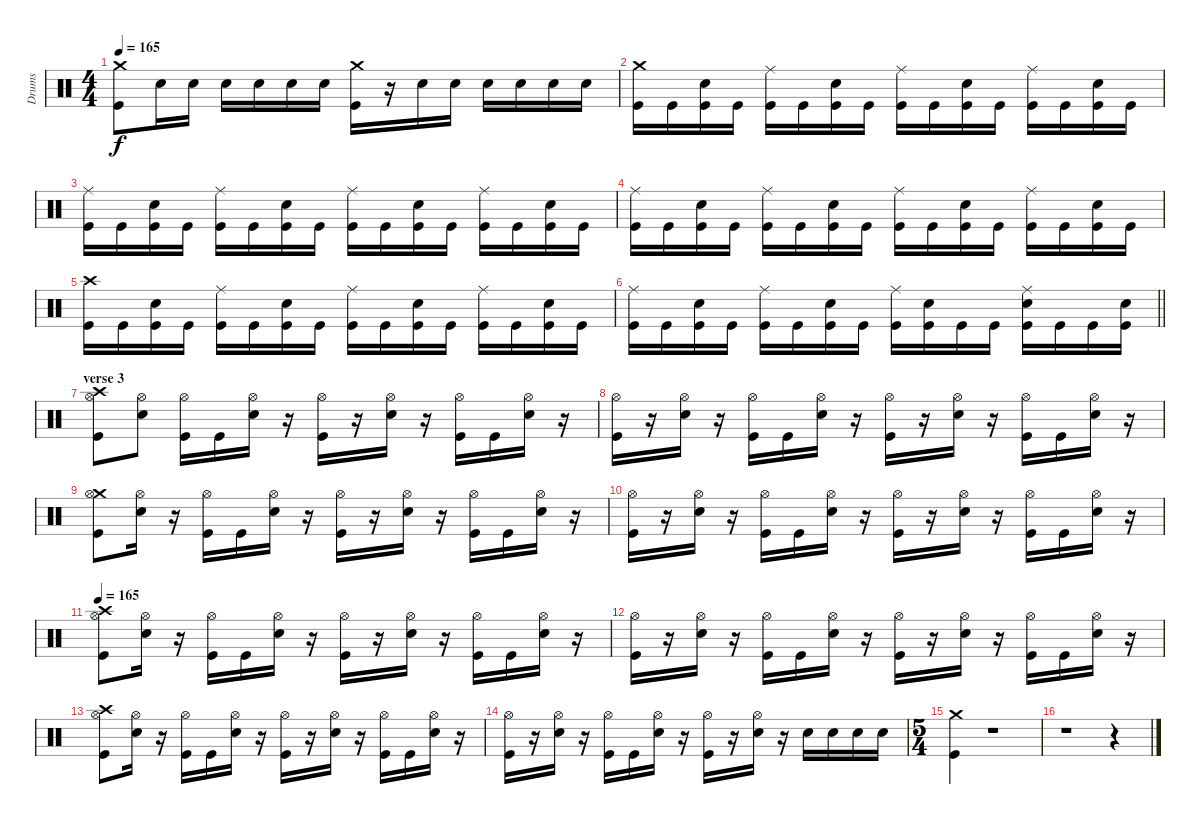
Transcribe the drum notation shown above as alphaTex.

\track ("Drums" "Drums") {instrument percussion}
\staff {score}
\articulation defaults
\ts (4 4)
\tempo 165
\clef neutral
\ks c
("Kick (hit)" "Crash medium (hit)").8{dy f} "Electric Snare (hit)".16 "Electric Snare (hit)".16 "Electric Snare (hit)".16 "Electric Snare (hit)".16 "Electric Snare (hit)".16 "Electric Snare (hit)".16 ("Crash medium (hit)" "Kick (hit)").16 r.16 "Electric Snare (hit)".16 "Electric Snare (hit)".16 "Electric Snare (hit)".16 "Electric Snare (hit)".16 "Electric Snare (hit)".16 "Electric Snare (hit)".16 |
("Crash medium (hit)" "Kick (hit)").16{volume 14 balance 8} "Kick (hit)".16 ("Electric Snare (hit)" "Kick (hit)").16 "Kick (hit)".16 ("Ride (middle)" "Kick (hit)").16 "Kick (hit)".16 ("Electric Snare (hit)" "Kick (hit)").16 "Kick (hit)".16 ("Ride (middle)" "Kick (hit)").16 "Kick (hit)".16 ("Electric Snare (hit)" "Kick (hit)").16 "Kick (hit)".16 ("Ride (middle)" "Kick (hit)").16 "Kick (hit)".16 ("Electric Snare (hit)" "Kick (hit)").16 "Kick (hit)".16 |
("Ride (middle)" "Kick (hit)").16 "Kick (hit)".16 ("Electric Snare (hit)" "Kick (hit)").16 "Kick (hit)".16 ("Ride (middle)" "Kick (hit)").16 "Kick (hit)".16 ("Electric Snare (hit)" "Kick (hit)").16 "Kick (hit)".16 ("Ride (middle)" "Kick (hit)").16 "Kick (hit)".16 ("Electric Snare (hit)" "Kick (hit)").16 "Kick (hit)".16 ("Ride (middle)" "Kick (hit)").16 "Kick (hit)".16 ("Electric Snare (hit)" "Kick (hit)").16 "Kick (hit)".16 |
("Ride (middle)" "Kick (hit)").16 "Kick (hit)".16 ("Electric Snare (hit)" "Kick (hit)").16 "Kick (hit)".16 ("Ride (middle)" "Kick (hit)").16 "Kick (hit)".16 ("Electric Snare (hit)" "Kick (hit)").16 "Kick (hit)".16 ("Ride (middle)" "Kick (hit)").16 "Kick (hit)".16 ("Electric Snare (hit)" "Kick (hit)").16 "Kick (hit)".16 ("Ride (middle)" "Kick (hit)").16 "Kick (hit)".16 ("Electric Snare (hit)" "Kick (hit)").16 "Kick (hit)".16 |
("Crash high (hit)" "Kick (hit)").16 "Kick (hit)".16 ("Electric Snare (hit)" "Kick (hit)").16 "Kick (hit)".16 ("Ride (middle)" "Kick (hit)").16 "Kick (hit)".16 ("Electric Snare (hit)" "Kick (hit)").16 "Kick (hit)".16 ("Ride (middle)" "Kick (hit)").16 "Kick (hit)".16 ("Electric Snare (hit)" "Kick (hit)").16 "Kick (hit)".16 ("Ride (middle)" "Kick (hit)").16 "Kick (hit)".16 ("Electric Snare (hit)" "Kick (hit)").16 "Kick (hit)".16 |
\barLineRight lightlight
("Ride (middle)" "Kick (hit)").16 "Kick (hit)".16 ("Electric Snare (hit)" "Kick (hit)").16 "Kick (hit)".16 ("Ride (middle)" "Kick (hit)").16 "Kick (hit)".16 ("Electric Snare (hit)" "Kick (hit)").16 "Kick (hit)".16 ("Ride (middle)" "Kick (hit)").16 ("Kick (hit)" "Electric Snare (hit)").16 "Kick (hit)".16 "Kick (hit)".16 ("Electric Snare (hit)" "Kick (hit)" "Ride (middle)").16 "Kick (hit)".16 "Kick (hit)".16 ("Electric Snare (hit)" "Kick (hit)").16 |
\section ("" "verse 3")
("Crash high (hit)" "Hi-Hat (open)" "Kick (hit)").8{volume 14 balance 8} ("Electric Snare (hit)" "Hi-Hat (open)").8 ("Kick (hit)" "Hi-Hat (open)").16 "Kick (hit)".16 ("Electric Snare (hit)" "Hi-Hat (open)").16 r.16 ("Kick (hit)" "Hi-Hat (open)").16 r.16 ("Electric Snare (hit)" "Hi-Hat (open)").16 r.16 ("Kick (hit)" "Hi-Hat (open)").16 "Kick (hit)".16 ("Electric Snare (hit)" "Hi-Hat (open)").16 r.16 |
("Hi-Hat (open)" "Kick (hit)").16 r.16 ("Electric Snare (hit)" "Hi-Hat (open)").16 r.16 ("Kick (hit)" "Hi-Hat (open)").16 "Kick (hit)".16 ("Electric Snare (hit)" "Hi-Hat (open)").16 r.16 ("Kick (hit)" "Hi-Hat (open)").16 r.16 ("Electric Snare (hit)" "Hi-Hat (open)").16 r.16 ("Kick (hit)" "Hi-Hat (open)").16 "Kick (hit)".16 ("Electric Snare (hit)" "Hi-Hat (open)").16 r.16 |
("Crash medium (hit)" "Hi-Hat (open)" "Kick (hit)").8 ("Electric Snare (hit)" "Hi-Hat (open)").16 r.16 ("Kick (hit)" "Hi-Hat (open)").16 "Kick (hit)".16 ("Electric Snare (hit)" "Hi-Hat (open)").16 r.16 ("Kick (hit)" "Hi-Hat (open)").16 r.16 ("Electric Snare (hit)" "Hi-Hat (open)").16 r.16 ("Kick (hit)" "Hi-Hat (open)").16 "Kick (hit)".16 ("Electric Snare (hit)" "Hi-Hat (open)").16 r.16 |
("Hi-Hat (open)" "Kick (hit)").16 r.16 ("Electric Snare (hit)" "Hi-Hat (open)").16 r.16 ("Kick (hit)" "Hi-Hat (open)").16 "Kick (hit)".16 ("Electric Snare (hit)" "Hi-Hat (open)").16 r.16 ("Kick (hit)" "Hi-Hat (open)").16 r.16 ("Electric Snare (hit)" "Hi-Hat (open)").16 r.16 ("Kick (hit)" "Hi-Hat (open)").16 "Kick (hit)".16 ("Electric Snare (hit)" "Hi-Hat (open)").16 r.16 |
\tempo 165
("Crash high (hit)" "Hi-Hat (open)" "Kick (hit)").8 ("Electric Snare (hit)" "Hi-Hat (open)").16 r.16 ("Kick (hit)" "Hi-Hat (open)").16 "Kick (hit)".16 ("Electric Snare (hit)" "Hi-Hat (open)").16 r.16 ("Kick (hit)" "Hi-Hat (open)").16 r.16 ("Electric Snare (hit)" "Hi-Hat (open)").16 r.16 ("Kick (hit)" "Hi-Hat (open)").16 "Kick (hit)".16 ("Electric Snare (hit)" "Hi-Hat (open)").16 r.16 |
("Hi-Hat (open)" "Kick (hit)").16 r.16 ("Electric Snare (hit)" "Hi-Hat (open)").16 r.16 ("Kick (hit)" "Hi-Hat (open)").16 "Kick (hit)".16 ("Electric Snare (hit)" "Hi-Hat (open)").16 r.16 ("Kick (hit)" "Hi-Hat (open)").16 r.16 ("Electric Snare (hit)" "Hi-Hat (open)").16 r.16 ("Kick (hit)" "Hi-Hat (open)").16 "Kick (hit)".16 ("Electric Snare (hit)" "Hi-Hat (open)").16 r.16 |
("Crash high (hit)" "Hi-Hat (open)" "Kick (hit)").8 ("Electric Snare (hit)" "Hi-Hat (open)").16 r.16 ("Kick (hit)" "Hi-Hat (open)").16 "Kick (hit)".16 ("Electric Snare (hit)" "Hi-Hat (open)").16 r.16 ("Kick (hit)" "Hi-Hat (open)").16 r.16 ("Electric Snare (hit)" "Hi-Hat (open)").16 r.16 ("Kick (hit)" "Hi-Hat (open)").16 "Kick (hit)".16 ("Electric Snare (hit)" "Hi-Hat (open)").16 r.16 |
("Hi-Hat (open)" "Kick (hit)").16 r.16 ("Electric Snare (hit)" "Hi-Hat (open)").16 r.16 ("Kick (hit)" "Hi-Hat (open)").16 "Kick (hit)".16 ("Electric Snare (hit)" "Hi-Hat (open)").16 r.16 ("Kick (hit)" "Hi-Hat (open)").16 r.16 ("Hi-Hat (open)" "Electric Snare (hit)").16 r.16 "Electric Snare (hit)".16 "Electric Snare (hit)".16 "Electric Snare (hit)".16 "Electric Snare (hit)".16 |
\ts (5 4)
("Crash medium (hit)" "Kick (hit)").4 r.1 |
r.1 r.4
